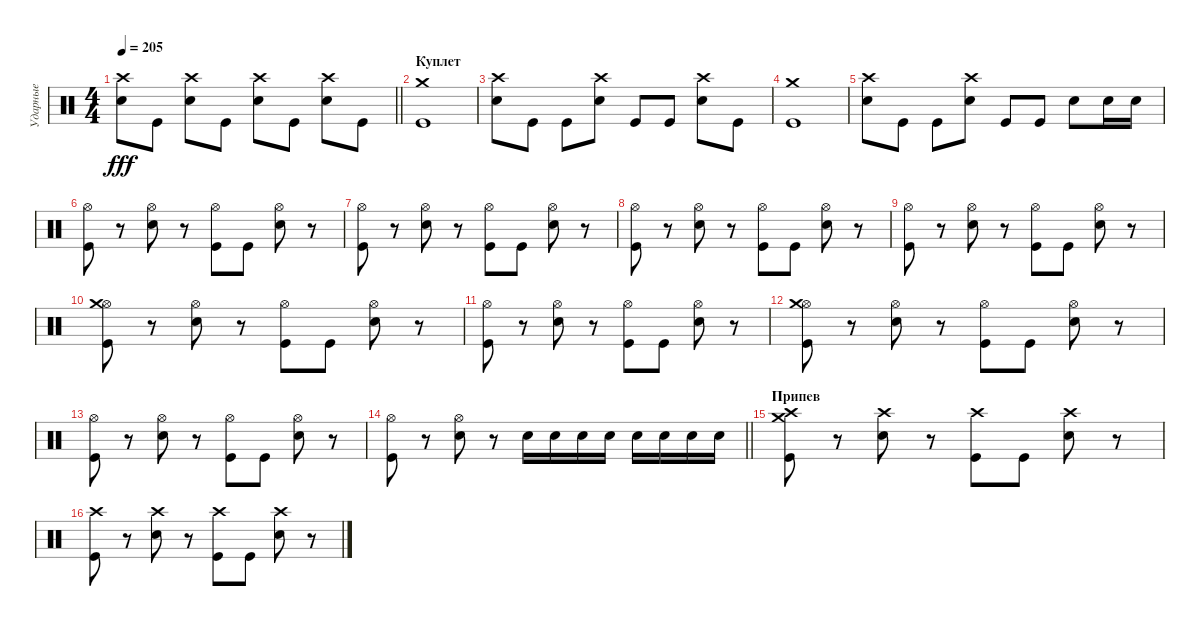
\track ("Ударные" "Ударные") {instrument percussion}
\staff {score}
\articulation defaults
\ts (4 4)
\tempo 205
\clef neutral
\barLineRight lightlight
\ks c
("Crash high (hit)" "Electric Snare (hit)").8{dy fff} "Kick (hit)".8 ("Crash high (hit)" "Electric Snare (hit)").8 "Kick (hit)".8 ("Crash high (hit)" "Electric Snare (hit)").8 "Kick (hit)".8 ("Crash high (hit)" "Electric Snare (hit)").8 "Kick (hit)".8 |
\section ("" "Куплет")
("Crash medium (hit)" "Kick (hit)").1 |
("Crash high (hit)" "Electric Snare (hit)").8 "Kick (hit)".8 "Kick (hit)".8 ("Crash high (hit)" "Electric Snare (hit)").8 "Kick (hit)".8 "Kick (hit)".8 ("Crash high (hit)" "Electric Snare (hit)").8 "Kick (hit)".8 |
("Crash medium (hit)" "Kick (hit)").1 |
("Crash high (hit)" "Electric Snare (hit)").8 "Kick (hit)".8 "Kick (hit)".8 ("Crash high (hit)" "Electric Snare (hit)").8 "Kick (hit)".8 "Kick (hit)".8 "Electric Snare (hit)".8 "Electric Snare (hit)".16 "Electric Snare (hit)".16 |
("Hi-Hat (open)" "Kick (hit)").8 r.8 ("Hi-Hat (open)" "Electric Snare (hit)").8 r.8 ("Hi-Hat (open)" "Kick (hit)").8 "Kick (hit)".8 ("Hi-Hat (open)" "Electric Snare (hit)").8 r.8 |
("Hi-Hat (open)" "Kick (hit)").8 r.8 ("Hi-Hat (open)" "Electric Snare (hit)").8 r.8 ("Hi-Hat (open)" "Kick (hit)").8 "Kick (hit)".8 ("Hi-Hat (open)" "Electric Snare (hit)").8 r.8 |
("Hi-Hat (open)" "Kick (hit)").8 r.8 ("Hi-Hat (open)" "Electric Snare (hit)").8 r.8 ("Hi-Hat (open)" "Kick (hit)").8 "Kick (hit)".8 ("Hi-Hat (open)" "Electric Snare (hit)").8 r.8 |
("Hi-Hat (open)" "Kick (hit)").8 r.8 ("Hi-Hat (open)" "Electric Snare (hit)").8 r.8 ("Hi-Hat (open)" "Kick (hit)").8 "Kick (hit)".8 ("Hi-Hat (open)" "Electric Snare (hit)").8 r.8 |
("Hi-Hat (open)" "Kick (hit)" "Crash medium (hit)").8 r.8 ("Hi-Hat (open)" "Electric Snare (hit)").8 r.8 ("Hi-Hat (open)" "Kick (hit)").8 "Kick (hit)".8 ("Hi-Hat (open)" "Electric Snare (hit)").8 r.8 |
("Hi-Hat (open)" "Kick (hit)").8 r.8 ("Hi-Hat (open)" "Electric Snare (hit)").8 r.8 ("Hi-Hat (open)" "Kick (hit)").8 "Kick (hit)".8 ("Hi-Hat (open)" "Electric Snare (hit)").8 r.8 |
("Hi-Hat (open)" "Kick (hit)" "Crash medium (hit)").8 r.8 ("Hi-Hat (open)" "Electric Snare (hit)").8 r.8 ("Hi-Hat (open)" "Kick (hit)").8 "Kick (hit)".8 ("Hi-Hat (open)" "Electric Snare (hit)").8 r.8 |
("Hi-Hat (open)" "Kick (hit)").8 r.8 ("Hi-Hat (open)" "Electric Snare (hit)").8 r.8 ("Hi-Hat (open)" "Kick (hit)").8 "Kick (hit)".8 ("Hi-Hat (open)" "Electric Snare (hit)").8 r.8 |
\barLineRight lightlight
("Hi-Hat (open)" "Kick (hit)").8 r.8 ("Hi-Hat (open)" "Electric Snare (hit)").8 r.8 "Electric Snare (hit)".16 "Electric Snare (hit)".16 "Electric Snare (hit)".16 "Electric Snare (hit)".16 "Electric Snare (hit)".16 "Electric Snare (hit)".16 "Electric Snare (hit)".16 "Electric Snare (hit)".16 |
\section ("" "Припев")
("Crash medium (hit)" "Kick (hit)" "Crash high (hit)").8 r.8 ("Electric Snare (hit)" "Crash high (hit)").8 r.8 ("Kick (hit)" "Crash high (hit)").8 "Kick (hit)".8 ("Electric Snare (hit)" "Crash high (hit)").8 r.8 |
("Kick (hit)" "Crash high (hit)").8 r.8 ("Electric Snare (hit)" "Crash high (hit)").8 r.8 ("Kick (hit)" "Crash high (hit)").8 "Kick (hit)".8 ("Electric Snare (hit)" "Crash high (hit)").8 r.8
